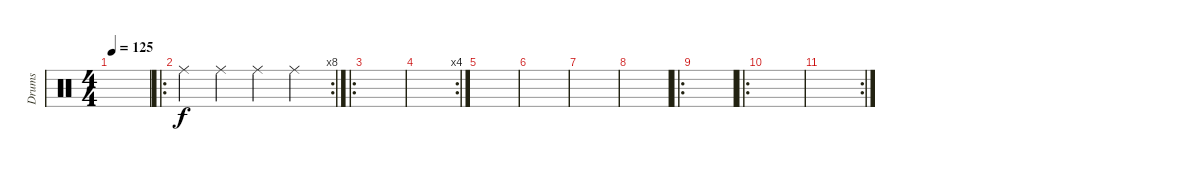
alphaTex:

\track ("Drums" "Drums") {instrument percussion}
\staff {score}
\articulation defaults
\ts (4 4)
\tempo 125
\clef neutral
\ks c
|
\ro
\rc 8 "Ride (middle)".4 "Ride (middle)".4 "Ride (middle)".4 "Ride (middle)".4
|
\ro
|
\rc 4
|
|
|
|
|
\ro
|
\ro
|
\rc 2
